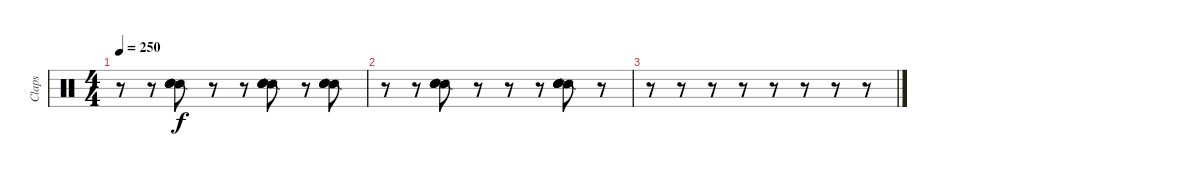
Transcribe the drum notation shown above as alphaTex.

\track ("Claps" "Claps") {instrument percussion}
\staff {score}
\articulation defaults
\ts (4 4)
\tempo 250
\clef neutral
\ks c
r.8{dy f} r.8 ("Snare (side stick) 2" "Hand Clap (hit)" "Hand Clap (hit)" "Hand Clap (hit)").8 r.8 r.8 ("Snare (side stick) 2" "Hand Clap (hit)" "Hand Clap (hit)" "Hand Clap (hit)").8 r.8 ("Snare (side stick) 2" "Hand Clap (hit)" "Hand Clap (hit)" "Hand Clap (hit)").8 |
r.8 r.8 ("Snare (side stick) 2" "Hand Clap (hit)" "Hand Clap (hit)" "Hand Clap (hit)").8 r.8 r.8 r.8 ("Snare (side stick) 2" "Hand Clap (hit)" "Hand Clap (hit)" "Hand Clap (hit)").8 r.8 |
r.8 r.8 r.8 r.8 r.8 r.8 r.8 r.8
